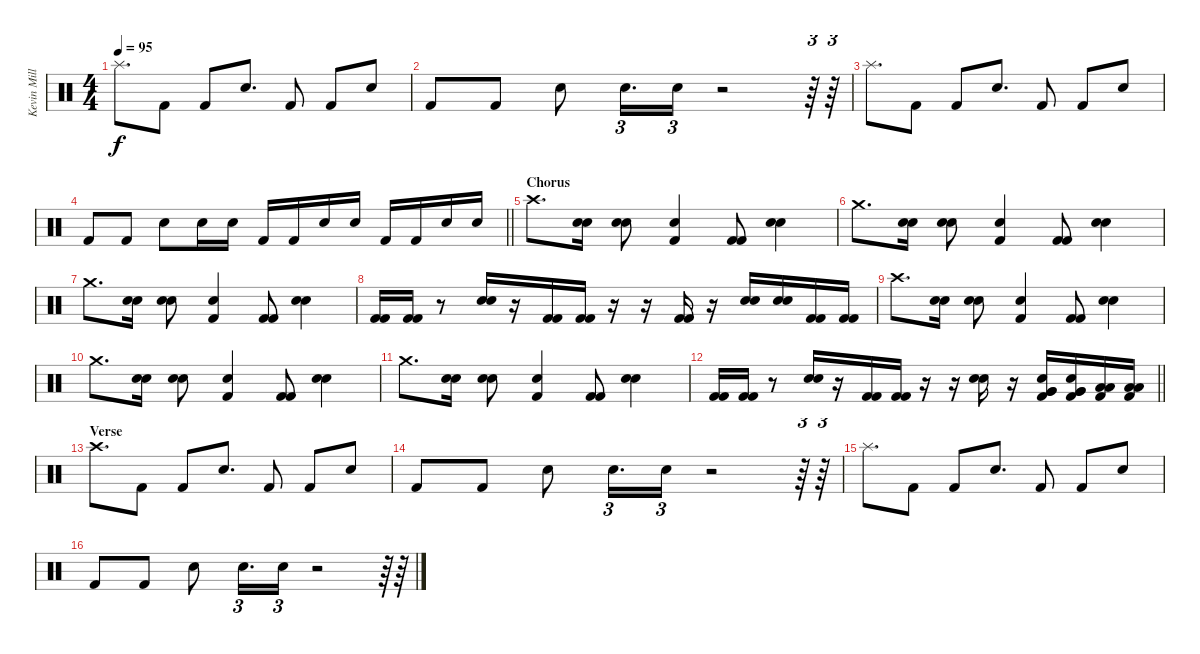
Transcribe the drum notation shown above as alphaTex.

\track ("Kevin Miller (Drums)" "Kevin Mill") {instrument percussion}
\staff {score}
\articulation defaults
\ts (4 4)
\tempo 95
\clef neutral
\ks c "Splash (hit)".8{d dy f} "Kick (hit) 2".8 "Kick (hit) 2".8 "Electric Snare (hit)".8{d} "Kick (hit) 2".8 "Kick (hit) 2".8 "Electric Snare (hit)".8
|
"Kick (hit) 2".8 "Kick (hit) 2".8 "Electric Snare (hit)".8 "Electric Snare (hit)".16{d tu (3 2)} "Electric Snare (hit)".16{tu (3 2)} r.2 r.64{tu (3 2)} r.64{tu (3 2)} |
"Splash (hit)".8{d} "Kick (hit) 2".8 "Kick (hit) 2".8 "Electric Snare (hit)".8{d} "Kick (hit) 2".8 "Kick (hit) 2".8 "Electric Snare (hit)".8 |
\barLineRight lightlight "Kick (hit) 2".8 "Kick (hit) 2".8 "Electric Snare (hit)".8 "Electric Snare (hit)".16 "Electric Snare (hit)".16 "Kick (hit) 2".16 "Kick (hit) 2".16 "Electric Snare (hit)".16 "Electric Snare (hit)".16 "Kick (hit) 2".16 "Kick (hit) 2".16 "Electric Snare (hit)".16 "Electric Snare (hit)".16
|
\section ("" "Chorus")
"Crash high (hit)".8{d} ("Electric Snare (hit)" "Electric Snare (hit)").16 ("Electric Snare (hit)" "Electric Snare (hit)").8 ("Electric Snare (hit)" "Kick (hit) 2").4 ("Kick (hit) 2" "Kick (hit) 2").8 ("Electric Snare (hit)" "Electric Snare (hit)").4 |
"Crash medium (hit)".8{d} ("Electric Snare (hit)" "Electric Snare (hit)").16 ("Electric Snare (hit)" "Electric Snare (hit)").8 ("Electric Snare (hit)" "Kick (hit) 2").4 ("Kick (hit) 2" "Kick (hit) 2").8 ("Electric Snare (hit)" "Electric Snare (hit)").4 |
"Crash medium (hit)".8{d} ("Electric Snare (hit)" "Electric Snare (hit)").16 ("Electric Snare (hit)" "Electric Snare (hit)").8 ("Electric Snare (hit)" "Kick (hit) 2").4 ("Kick (hit) 2" "Kick (hit) 2").8 ("Electric Snare (hit)" "Electric Snare (hit)").4 |
("Kick (hit) 2" "Kick (hit) 2").16 ("Kick (hit) 2" "Kick (hit) 2").16 r.8 ("Electric Snare (hit)" "Electric Snare (hit)").16 r.16 ("Kick (hit) 2" "Kick (hit) 2").16 ("Kick (hit) 2" "Kick (hit) 2").16 r.16 r.16 ("Kick (hit) 2" "Kick (hit) 2").16 r.16 ("Electric Snare (hit)" "Electric Snare (hit)").16 ("Electric Snare (hit)" "Electric Snare (hit)").16 ("Kick (hit) 2" "Kick (hit) 2").16 ("Kick (hit) 2" "Kick (hit) 2").16 |
"Crash high (hit)".8{d} ("Electric Snare (hit)" "Electric Snare (hit)").16 ("Electric Snare (hit)" "Electric Snare (hit)").8 ("Electric Snare (hit)" "Kick (hit) 2").4 ("Kick (hit) 2" "Kick (hit) 2").8 ("Electric Snare (hit)" "Electric Snare (hit)").4 |
"Crash medium (hit)".8{d} ("Electric Snare (hit)" "Electric Snare (hit)").16 ("Electric Snare (hit)" "Electric Snare (hit)").8 ("Electric Snare (hit)" "Kick (hit) 2").4 ("Kick (hit) 2" "Kick (hit) 2").8 ("Electric Snare (hit)" "Electric Snare (hit)").4 |
"Crash medium (hit)".8{d} ("Electric Snare (hit)" "Electric Snare (hit)").16 ("Electric Snare (hit)" "Electric Snare (hit)").8 ("Electric Snare (hit)" "Kick (hit) 2").4 ("Kick (hit) 2" "Kick (hit) 2").8 ("Electric Snare (hit)" "Electric Snare (hit)").4 |
\barLineRight lightlight
("Kick (hit) 2" "Kick (hit) 2").16 ("Kick (hit) 2" "Kick (hit) 2").16 r.8 ("Electric Snare (hit)" "Electric Snare (hit)").16 r.16 ("Kick (hit) 2" "Kick (hit) 2").16 ("Kick (hit) 2" "Kick (hit) 2").16 r.16 r.16 ("Electric Snare (hit)" "Electric Snare (hit)").16 r.16 ("Kick (hit) 2" "Very Low Tom (hit)" "Very Low Tom (hit)" "Electric Snare (hit)").16 ("Kick (hit) 2" "Very Low Tom (hit)" "Very Low Tom (hit)" "Electric Snare (hit)").16 ("Kick (hit) 2" "Low Tom (hit)" "Low Tom (hit)").16 ("Kick (hit) 2" "Low Tom (hit)" "Low Tom (hit)").16 |
\section ("" "Verse")
"Crash high (hit)".8{d} "Kick (hit) 2".8 "Kick (hit) 2".8 "Electric Snare (hit)".8{d} "Kick (hit) 2".8 "Kick (hit) 2".8 "Electric Snare (hit)".8 |
"Kick (hit) 2".8 "Kick (hit) 2".8 "Electric Snare (hit)".8 "Electric Snare (hit)".16{d tu (3 2)} "Electric Snare (hit)".16{tu (3 2)} r.2 r.64{tu (3 2)} r.64{tu (3 2)} |
"Splash (hit)".8{d} "Kick (hit) 2".8 "Kick (hit) 2".8 "Electric Snare (hit)".8{d} "Kick (hit) 2".8 "Kick (hit) 2".8 "Electric Snare (hit)".8 |
"Kick (hit) 2".8 "Kick (hit) 2".8 "Electric Snare (hit)".8 "Electric Snare (hit)".16{d tu (3 2)} "Electric Snare (hit)".16{tu (3 2)} r.2 r.64{tu (3 2)} r.64{tu (3 2)}
